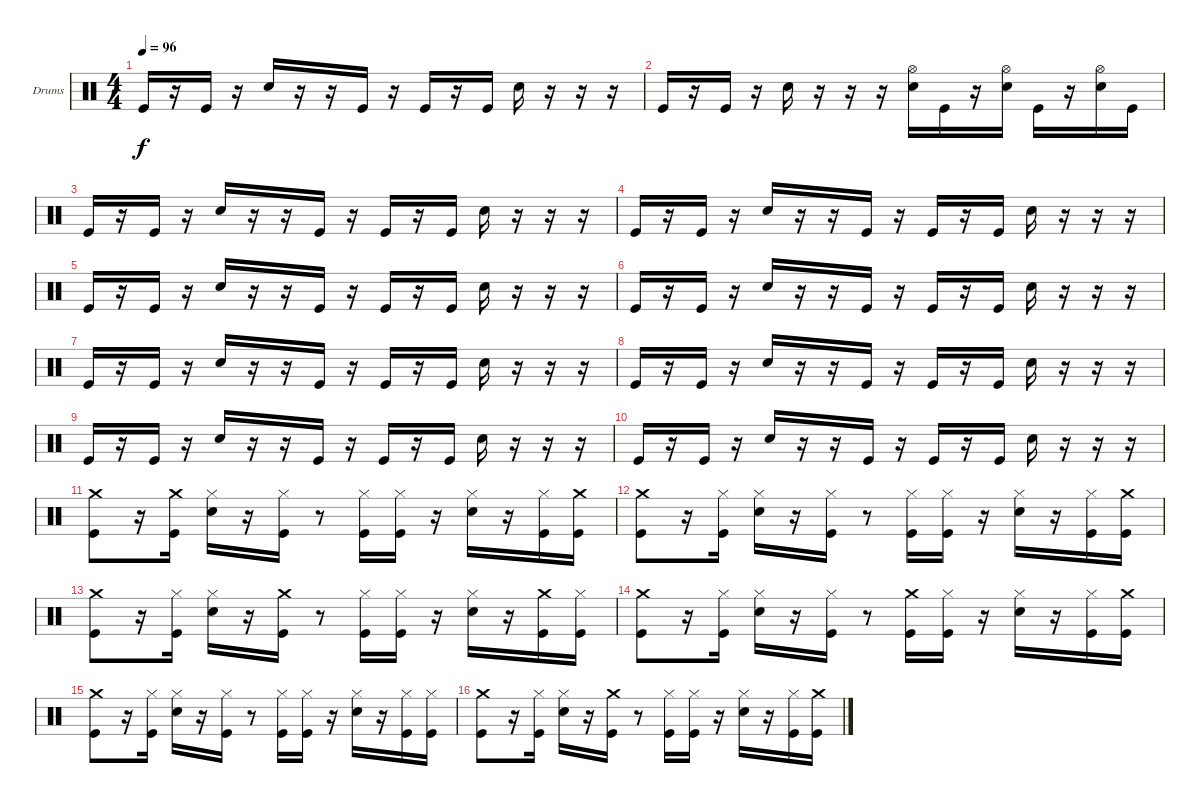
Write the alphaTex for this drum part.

\defaultSystemsLayout 4
\bracketExtendMode groupsimilarinstruments
\firstSystemTrackNameOrientation horizontal
\otherSystemsTrackNameOrientation horizontal
\track ("Павел Тетерин(Pa$ok)" "Drums") {instrument percussion}
\staff {score}
\articulation defaults
\ts (4 4)
\tempo 96
\clef neutral
\ks c "Kick (hit)".16{dy f}
r.16 "Kick (hit)".16 r.16 "Snare (hit) 2".16 r.16 r.16 "Kick (hit)".16 r.16 "Kick (hit)".16 r.16 "Kick (hit)".16 "Snare (hit) 2".16 r.16 r.16 r.16 |
"Kick (hit)".16 r.16 "Kick (hit)".16 r.16 "Snare (hit) 2".16 r.16 r.16 r.16 ("Hi-Hat (open)" "Snare (hit) 2").16 "Kick (hit)".16 r.16 ("Hi-Hat (open)" "Snare (hit) 2").16 "Kick (hit)".16 r.16 ("Hi-Hat (open)" "Snare (hit) 2").16 "Kick (hit)".16 |
"Kick (hit)".16 r.16 "Kick (hit)".16 r.16 "Snare (hit) 2".16 r.16 r.16 "Kick (hit)".16 r.16 "Kick (hit)".16 r.16 "Kick (hit)".16 "Snare (hit) 2".16 r.16 r.16 r.16 |
"Kick (hit)".16 r.16 "Kick (hit)".16 r.16 "Snare (hit) 2".16 r.16 r.16 "Kick (hit)".16 r.16 "Kick (hit)".16 r.16 "Kick (hit)".16 "Snare (hit) 2".16 r.16 r.16 r.16 |
"Kick (hit)".16 r.16 "Kick (hit)".16 r.16 "Snare (hit) 2".16 r.16 r.16 "Kick (hit)".16 r.16 "Kick (hit)".16 r.16 "Kick (hit)".16 "Snare (hit) 2".16 r.16 r.16 r.16 |
"Kick (hit)".16 r.16 "Kick (hit)".16 r.16 "Snare (hit) 2".16 r.16 r.16 "Kick (hit)".16 r.16 "Kick (hit)".16 r.16 "Kick (hit)".16 "Snare (hit) 2".16 r.16 r.16 r.16 |
"Kick (hit)".16 r.16 "Kick (hit)".16 r.16 "Snare (hit) 2".16 r.16 r.16 "Kick (hit)".16 r.16 "Kick (hit)".16 r.16 "Kick (hit)".16 "Snare (hit) 2".16 r.16 r.16 r.16 |
"Kick (hit)".16 r.16 "Kick (hit)".16 r.16 "Snare (hit) 2".16 r.16 r.16 "Kick (hit)".16 r.16 "Kick (hit)".16 r.16 "Kick (hit)".16 "Snare (hit) 2".16 r.16 r.16 r.16 |
"Kick (hit)".16 r.16 "Kick (hit)".16 r.16 "Snare (hit) 2".16 r.16 r.16 "Kick (hit)".16 r.16 "Kick (hit)".16 r.16 "Kick (hit)".16 "Snare (hit) 2".16 r.16 r.16 r.16 |
"Kick (hit)".16 r.16 "Kick (hit)".16 r.16 "Snare (hit) 2".16 r.16 r.16 "Kick (hit)".16 r.16 "Kick (hit)".16 r.16 "Kick (hit)".16 "Snare (hit) 2".16 r.16 r.16 r.16 |
("Crash medium (hit)" "Kick (hit)").8 r.16 ("Crash medium (hit)" "Kick (hit)").16 ("Snare (hit) 2" "Hi-Hat (closed)").16 r.16 ("Hi-Hat (closed)" "Kick (hit)").16 r.8 ("Hi-Hat (closed)" "Kick (hit)").16 ("Hi-Hat (closed)" "Kick (hit)").16 r.16 ("Snare (hit) 2" "Hi-Hat (closed)").16 r.16 ("Hi-Hat (closed)" "Kick (hit)").16 ("Crash medium (hit)" "Kick (hit)").16 |
("Crash medium (hit)" "Kick (hit)").8 r.16 ("Hi-Hat (closed)" "Kick (hit)").16 ("Snare (hit) 2" "Hi-Hat (closed)").16 r.16 ("Hi-Hat (closed)" "Kick (hit)").16 r.8 ("Hi-Hat (closed)" "Kick (hit)").16 ("Hi-Hat (closed)" "Kick (hit)").16 r.16 ("Snare (hit) 2" "Hi-Hat (closed)").16 r.16 ("Hi-Hat (closed)" "Kick (hit)").16 ("Crash medium (hit)" "Kick (hit)").16 |
("Crash medium (hit)" "Kick (hit)").8 r.16 ("Hi-Hat (closed)" "Kick (hit)").16 ("Snare (hit) 2" "Hi-Hat (closed)").16 r.16 ("Crash medium (hit)" "Kick (hit)").16 r.8 ("Hi-Hat (closed)" "Kick (hit)").16 ("Hi-Hat (closed)" "Kick (hit)").16 r.16 ("Snare (hit) 2" "Hi-Hat (closed)").16 r.16 ("Crash medium (hit)" "Kick (hit)").16 ("Hi-Hat (closed)" "Kick (hit)").16 |
("Crash medium (hit)" "Kick (hit)").8 r.16 ("Hi-Hat (closed)" "Kick (hit)").16 ("Snare (hit) 2" "Hi-Hat (closed)").16 r.16 ("Hi-Hat (closed)" "Kick (hit)").16 r.8 ("Crash medium (hit)" "Kick (hit)").16 ("Hi-Hat (closed)" "Kick (hit)").16 r.16 ("Snare (hit) 2" "Hi-Hat (closed)").16 r.16 ("Hi-Hat (closed)" "Kick (hit)").16 ("Crash medium (hit)" "Kick (hit)").16 |
("Crash medium (hit)" "Kick (hit)").8 r.16 ("Hi-Hat (closed)" "Kick (hit)").16 ("Snare (hit) 2" "Hi-Hat (closed)").16 r.16 ("Hi-Hat (closed)" "Kick (hit)").16 r.8 ("Hi-Hat (closed)" "Kick (hit)").16 ("Hi-Hat (closed)" "Kick (hit)").16 r.16 ("Snare (hit) 2" "Hi-Hat (closed)").16 r.16 ("Hi-Hat (closed)" "Kick (hit)").16 ("Hi-Hat (closed)" "Kick (hit)").16 |
("Crash medium (hit)" "Kick (hit)").8 r.16 ("Hi-Hat (closed)" "Kick (hit)").16 ("Snare (hit) 2" "Hi-Hat (closed)").16 r.16 ("Crash medium (hit)" "Kick (hit)").16 r.8 ("Hi-Hat (closed)" "Kick (hit)").16 ("Hi-Hat (closed)" "Kick (hit)").16 r.16 ("Snare (hit) 2" "Hi-Hat (closed)").16 r.16 ("Hi-Hat (closed)" "Kick (hit)").16 ("Crash medium (hit)" "Kick (hit)").16
